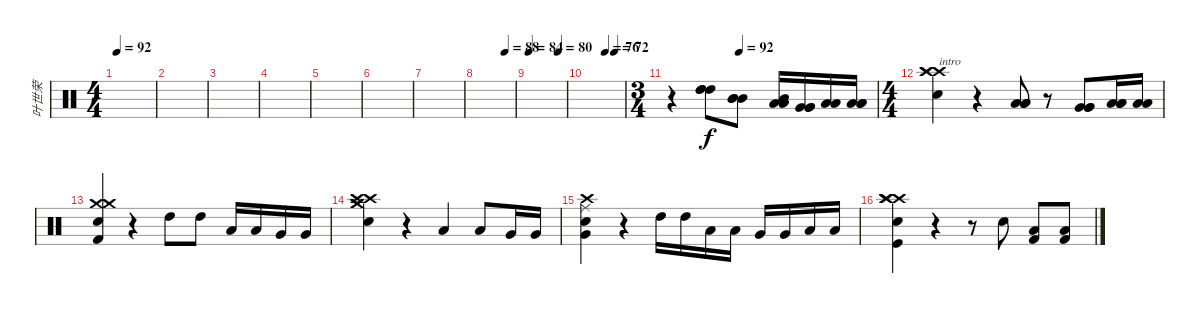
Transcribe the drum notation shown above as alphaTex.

\track ("叶世荣" "叶世荣") {instrument percussion}
\staff {score}
\articulation defaults
\ts (4 4)
\tempo 92
\clef neutral
\ks c
|
|
|
|
|
|
|
\tempo (88 0.75)
|
\tempo 84
\tempo (80 0.796875)
|
\tempo (76 0.5)
\tempo (72 0.75)
|
\ts (3 4)
\tempo (92 0.3333333333333333)
r.4 ("High Tom (hit)" "High Tom (hit)" "High Tom (hit)").8 ("Mid Tom (hit)" "Mid Tom (hit)" "Mid Tom (hit)").8 ("Low Tom (hit)" "Low Tom (hit)" "Mid Tom (hit)").16 ("Very Low Tom (hit)" "Very Low Tom (hit)" "Very Low Tom (hit)").16 ("Low Floor Tom (hit)" "Low Floor Tom (hit)").16 ("Low Floor Tom (hit)" "Low Floor Tom (hit)" "Low Floor Tom (hit)").16 |
\ts (4 4)
("Metronome (bell)" "Crash high (hit)" "Crash high (hit)" "Crash high (hit)").4{txt "intro"} r.4 ("Low Tom (hit)" "Low Tom (hit)" "Low Tom (hit)").8 r.8 ("Very Low Tom (hit)" "Very Low Tom (hit)" "Very Low Tom (hit)").8 ("Low Floor Tom (hit)" "Low Floor Tom (hit)" "Low Floor Tom (hit)").16 ("Low Floor Tom (hit)" "Low Floor Tom (hit)").16 |
("Crash medium (hit)" "Kick (hit) 2" "Metronome (bell)" "Crash medium (hit)").4 r.4 "High Tom (hit)".8 "High Tom (hit)".8 "Low Tom (hit)".16 "Low Tom (hit)".16 "Very Low Tom (hit)".16 "Very Low Tom (hit)".16 |
("Crash high (hit)" "Crash medium (hit)" "Crash high (hit)" "Crash medium (hit)" "Metronome (bell)").4 r.4 "Low Tom (hit)".4 "Low Tom (hit)".8 "Very Low Tom (hit)".16 "Very Low Tom (hit)".16 |
("Crash high (hit)" "Ride (middle)" "Very Low Tom (hit)" "Metronome (bell)").4 r.4 "High Tom (hit)".16 "High Tom (hit)".16 "Low Tom (hit)".16 "Low Tom (hit)".16 "Very Low Tom (hit)".16 "Very Low Tom (hit)".16 "Low Floor Tom (hit)".16 "Low Floor Tom (hit)".16 |
("Kick (hit)" "Crash high (hit)" "Crash high (hit)" "Crash high (hit)" "Crash high (hit)" "Electric Snare (hit)").4 r.4 r.8 "Electric Snare (hit)".8 ("Low Floor Tom (hit)" "Kick (hit) 2").8 ("Low Floor Tom (hit)" "Kick (hit) 2").8
